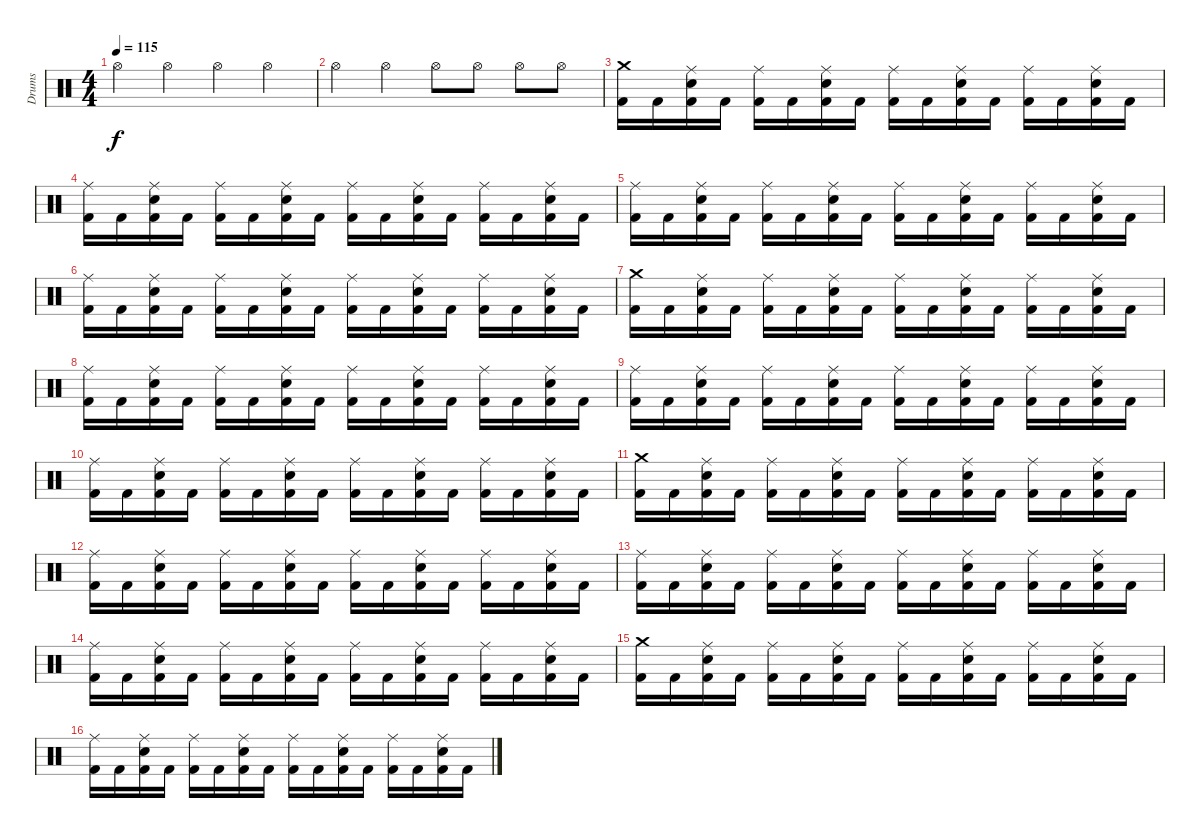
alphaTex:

\track ("Drums" "Drums") {instrument percussion}
\staff {score}
\articulation defaults
\ts (4 4)
\tempo 115
\clef neutral
\ks c "Hi-Hat (open)".4{dy f} "Hi-Hat (open)".4 "Hi-Hat (open)".4 "Hi-Hat (open)".4
|
"Hi-Hat (open)".4 "Hi-Hat (open)".4 "Hi-Hat (open)".8 "Hi-Hat (open)".8 "Hi-Hat (open)".8 "Hi-Hat (open)".8 |
("Crash medium (hit)" "Kick (hit) 2").16 "Kick (hit) 2".16 ("Ride (middle)" "Electric Snare (hit)" "Kick (hit) 2").16 "Kick (hit) 2".16 ("Ride (middle)" "Kick (hit) 2").16 "Kick (hit) 2".16 ("Ride (middle)" "Electric Snare (hit)" "Kick (hit) 2").16 "Kick (hit) 2".16 ("Ride (middle)" "Kick (hit) 2").16 "Kick (hit) 2".16 ("Ride (middle)" "Electric Snare (hit)" "Kick (hit) 2").16 "Kick (hit) 2".16 ("Ride (middle)" "Kick (hit) 2").16 "Kick (hit) 2".16 ("Ride (middle)" "Electric Snare (hit)" "Kick (hit) 2").16 "Kick (hit) 2".16 |
("Ride (middle)" "Kick (hit) 2").16 "Kick (hit) 2".16 ("Ride (middle)" "Electric Snare (hit)" "Kick (hit) 2").16 "Kick (hit) 2".16 ("Ride (middle)" "Kick (hit) 2").16 "Kick (hit) 2".16 ("Ride (middle)" "Electric Snare (hit)" "Kick (hit) 2").16 "Kick (hit) 2".16 ("Ride (middle)" "Kick (hit) 2").16 "Kick (hit) 2".16 ("Ride (middle)" "Electric Snare (hit)" "Kick (hit) 2").16 "Kick (hit) 2".16 ("Ride (middle)" "Kick (hit) 2").16 "Kick (hit) 2".16 ("Ride (middle)" "Electric Snare (hit)" "Kick (hit) 2").16 "Kick (hit) 2".16 |
("Ride (middle)" "Kick (hit) 2").16 "Kick (hit) 2".16 ("Ride (middle)" "Electric Snare (hit)" "Kick (hit) 2").16 "Kick (hit) 2".16 ("Ride (middle)" "Kick (hit) 2").16 "Kick (hit) 2".16 ("Ride (middle)" "Electric Snare (hit)" "Kick (hit) 2").16 "Kick (hit) 2".16 ("Ride (middle)" "Kick (hit) 2").16 "Kick (hit) 2".16 ("Ride (middle)" "Electric Snare (hit)" "Kick (hit) 2").16 "Kick (hit) 2".16 ("Ride (middle)" "Kick (hit) 2").16 "Kick (hit) 2".16 ("Ride (middle)" "Electric Snare (hit)" "Kick (hit) 2").16 "Kick (hit) 2".16 |
("Ride (middle)" "Kick (hit) 2").16 "Kick (hit) 2".16 ("Ride (middle)" "Electric Snare (hit)" "Kick (hit) 2").16 "Kick (hit) 2".16 ("Ride (middle)" "Kick (hit) 2").16 "Kick (hit) 2".16 ("Ride (middle)" "Electric Snare (hit)" "Kick (hit) 2").16 "Kick (hit) 2".16 ("Ride (middle)" "Kick (hit) 2").16 "Kick (hit) 2".16 ("Ride (middle)" "Electric Snare (hit)" "Kick (hit) 2").16 "Kick (hit) 2".16 ("Ride (middle)" "Kick (hit) 2").16 "Kick (hit) 2".16 ("Ride (middle)" "Electric Snare (hit)" "Kick (hit) 2").16 "Kick (hit) 2".16 |
("Crash medium (hit)" "Kick (hit) 2").16 "Kick (hit) 2".16 ("Ride (middle)" "Electric Snare (hit)" "Kick (hit) 2").16 "Kick (hit) 2".16 ("Ride (middle)" "Kick (hit) 2").16 "Kick (hit) 2".16 ("Ride (middle)" "Electric Snare (hit)" "Kick (hit) 2").16 "Kick (hit) 2".16 ("Ride (middle)" "Kick (hit) 2").16 "Kick (hit) 2".16 ("Ride (middle)" "Electric Snare (hit)" "Kick (hit) 2").16 "Kick (hit) 2".16 ("Ride (middle)" "Kick (hit) 2").16 "Kick (hit) 2".16 ("Ride (middle)" "Electric Snare (hit)" "Kick (hit) 2").16 "Kick (hit) 2".16 |
("Ride (middle)" "Kick (hit) 2").16 "Kick (hit) 2".16 ("Ride (middle)" "Electric Snare (hit)" "Kick (hit) 2").16 "Kick (hit) 2".16 ("Ride (middle)" "Kick (hit) 2").16 "Kick (hit) 2".16 ("Ride (middle)" "Electric Snare (hit)" "Kick (hit) 2").16 "Kick (hit) 2".16 ("Ride (middle)" "Kick (hit) 2").16 "Kick (hit) 2".16 ("Ride (middle)" "Electric Snare (hit)" "Kick (hit) 2").16 "Kick (hit) 2".16 ("Ride (middle)" "Kick (hit) 2").16 "Kick (hit) 2".16 ("Ride (middle)" "Electric Snare (hit)" "Kick (hit) 2").16 "Kick (hit) 2".16 |
("Ride (middle)" "Kick (hit) 2").16 "Kick (hit) 2".16 ("Ride (middle)" "Electric Snare (hit)" "Kick (hit) 2").16 "Kick (hit) 2".16 ("Ride (middle)" "Kick (hit) 2").16 "Kick (hit) 2".16 ("Ride (middle)" "Electric Snare (hit)" "Kick (hit) 2").16 "Kick (hit) 2".16 ("Ride (middle)" "Kick (hit) 2").16 "Kick (hit) 2".16 ("Ride (middle)" "Electric Snare (hit)" "Kick (hit) 2").16 "Kick (hit) 2".16 ("Ride (middle)" "Kick (hit) 2").16 "Kick (hit) 2".16 ("Ride (middle)" "Electric Snare (hit)" "Kick (hit) 2").16 "Kick (hit) 2".16 |
("Ride (middle)" "Kick (hit) 2").16 "Kick (hit) 2".16 ("Ride (middle)" "Electric Snare (hit)" "Kick (hit) 2").16 "Kick (hit) 2".16 ("Ride (middle)" "Kick (hit) 2").16 "Kick (hit) 2".16 ("Ride (middle)" "Electric Snare (hit)" "Kick (hit) 2").16 "Kick (hit) 2".16 ("Ride (middle)" "Kick (hit) 2").16 "Kick (hit) 2".16 ("Ride (middle)" "Electric Snare (hit)" "Kick (hit) 2").16 "Kick (hit) 2".16 ("Ride (middle)" "Kick (hit) 2").16 "Kick (hit) 2".16 ("Ride (middle)" "Electric Snare (hit)" "Kick (hit) 2").16 "Kick (hit) 2".16 |
("Crash medium (hit)" "Kick (hit) 2").16 "Kick (hit) 2".16 ("Ride (middle)" "Electric Snare (hit)" "Kick (hit) 2").16 "Kick (hit) 2".16 ("Ride (middle)" "Kick (hit) 2").16 "Kick (hit) 2".16 ("Ride (middle)" "Electric Snare (hit)" "Kick (hit) 2").16 "Kick (hit) 2".16 ("Ride (middle)" "Kick (hit) 2").16 "Kick (hit) 2".16 ("Ride (middle)" "Electric Snare (hit)" "Kick (hit) 2").16 "Kick (hit) 2".16 ("Ride (middle)" "Kick (hit) 2").16 "Kick (hit) 2".16 ("Ride (middle)" "Electric Snare (hit)" "Kick (hit) 2").16 "Kick (hit) 2".16 |
("Ride (middle)" "Kick (hit) 2").16 "Kick (hit) 2".16 ("Ride (middle)" "Electric Snare (hit)" "Kick (hit) 2").16 "Kick (hit) 2".16 ("Ride (middle)" "Kick (hit) 2").16 "Kick (hit) 2".16 ("Ride (middle)" "Electric Snare (hit)" "Kick (hit) 2").16 "Kick (hit) 2".16 ("Ride (middle)" "Kick (hit) 2").16 "Kick (hit) 2".16 ("Ride (middle)" "Electric Snare (hit)" "Kick (hit) 2").16 "Kick (hit) 2".16 ("Ride (middle)" "Kick (hit) 2").16 "Kick (hit) 2".16 ("Ride (middle)" "Electric Snare (hit)" "Kick (hit) 2").16 "Kick (hit) 2".16 |
("Ride (middle)" "Kick (hit) 2").16 "Kick (hit) 2".16 ("Ride (middle)" "Electric Snare (hit)" "Kick (hit) 2").16 "Kick (hit) 2".16 ("Ride (middle)" "Kick (hit) 2").16 "Kick (hit) 2".16 ("Ride (middle)" "Electric Snare (hit)" "Kick (hit) 2").16 "Kick (hit) 2".16 ("Ride (middle)" "Kick (hit) 2").16 "Kick (hit) 2".16 ("Ride (middle)" "Electric Snare (hit)" "Kick (hit) 2").16 "Kick (hit) 2".16 ("Ride (middle)" "Kick (hit) 2").16 "Kick (hit) 2".16 ("Ride (middle)" "Electric Snare (hit)" "Kick (hit) 2").16 "Kick (hit) 2".16 |
("Ride (middle)" "Kick (hit) 2").16 "Kick (hit) 2".16 ("Ride (middle)" "Electric Snare (hit)" "Kick (hit) 2").16 "Kick (hit) 2".16 ("Ride (middle)" "Kick (hit) 2").16 "Kick (hit) 2".16 ("Ride (middle)" "Electric Snare (hit)" "Kick (hit) 2").16 "Kick (hit) 2".16 ("Ride (middle)" "Kick (hit) 2").16 "Kick (hit) 2".16 ("Ride (middle)" "Electric Snare (hit)" "Kick (hit) 2").16 "Kick (hit) 2".16 ("Ride (middle)" "Kick (hit) 2").16 "Kick (hit) 2".16 ("Ride (middle)" "Electric Snare (hit)" "Kick (hit) 2").16 "Kick (hit) 2".16 |
("Crash medium (hit)" "Kick (hit) 2").16 "Kick (hit) 2".16 ("Ride (middle)" "Electric Snare (hit)" "Kick (hit) 2").16 "Kick (hit) 2".16 ("Ride (middle)" "Kick (hit) 2").16 "Kick (hit) 2".16 ("Ride (middle)" "Electric Snare (hit)" "Kick (hit) 2").16 "Kick (hit) 2".16 ("Ride (middle)" "Kick (hit) 2").16 "Kick (hit) 2".16 ("Ride (middle)" "Electric Snare (hit)" "Kick (hit) 2").16 "Kick (hit) 2".16 ("Ride (middle)" "Kick (hit) 2").16 "Kick (hit) 2".16 ("Ride (middle)" "Electric Snare (hit)" "Kick (hit) 2").16 "Kick (hit) 2".16 |
("Ride (middle)" "Kick (hit) 2").16 "Kick (hit) 2".16 ("Ride (middle)" "Electric Snare (hit)" "Kick (hit) 2").16 "Kick (hit) 2".16 ("Ride (middle)" "Kick (hit) 2").16 "Kick (hit) 2".16 ("Ride (middle)" "Electric Snare (hit)" "Kick (hit) 2").16 "Kick (hit) 2".16 ("Ride (middle)" "Kick (hit) 2").16 "Kick (hit) 2".16 ("Ride (middle)" "Electric Snare (hit)" "Kick (hit) 2").16 "Kick (hit) 2".16 ("Ride (middle)" "Kick (hit) 2").16 "Kick (hit) 2".16 ("Ride (middle)" "Electric Snare (hit)" "Kick (hit) 2").16 "Kick (hit) 2".16
